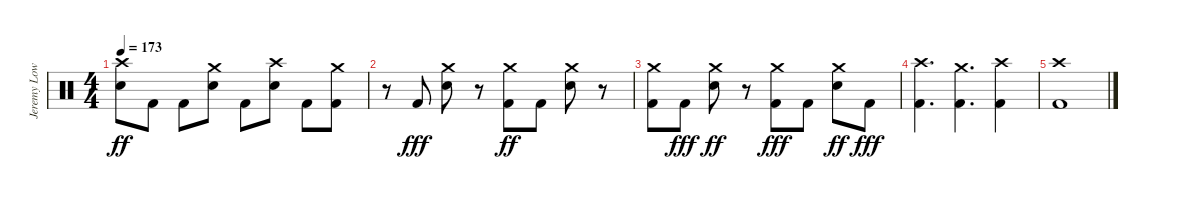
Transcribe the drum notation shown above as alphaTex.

\track ("Jeremy Lowery" "Jeremy Low") {instrument percussion}
\staff {score}
\articulation defaults
\ts (4 4)
\tempo 173
\clef neutral
\ks c
("Crash high (hit)" "Electric Snare (hit)").8{dy ff} "Kick (hit) 2".8 "Kick (hit) 2".8 ("Crash medium (hit)" "Electric Snare (hit)").8 "Kick (hit) 2".8 ("Crash high (hit)" "Electric Snare (hit)").8 "Kick (hit) 2".8 ("Crash medium (hit)" "Kick (hit) 2").8 |
r.8 "Kick (hit) 2".8{dy fff} ("Crash medium (hit)" "Electric Snare (hit)").8 r.8 ("Crash medium (hit)" "Kick (hit) 2").8{dy ff} "Kick (hit) 2".8 ("Crash medium (hit)" "Electric Snare (hit)").8 r.8 |
("Crash medium (hit)" "Kick (hit) 2").8 "Kick (hit) 2".8{dy fff} ("Crash medium (hit)" "Electric Snare (hit)").8{dy ff} r.8 ("Crash medium (hit)" "Kick (hit) 2").8{dy fff} "Kick (hit) 2".8 ("Crash medium (hit)" "Electric Snare (hit)").8{dy ff} "Kick (hit) 2".8{dy fff} |
("Crash high (hit)" "Kick (hit) 2").4{d} ("Crash medium (hit)" "Kick (hit) 2").4{d} ("Crash high (hit)" "Kick (hit) 2").4 |
("Crash high (hit)" "Kick (hit) 2").1
